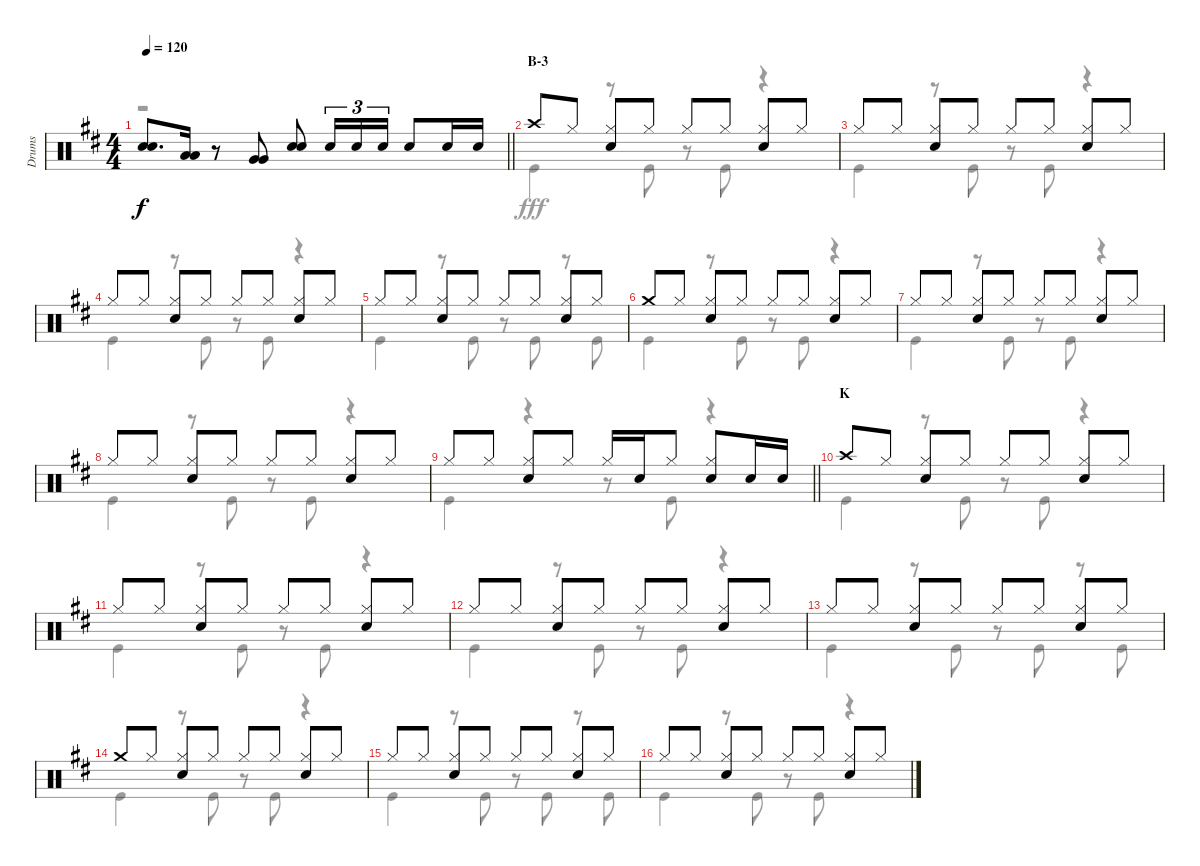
\track ("Drums" "Drums") {instrument percussion}
\staff {score}
\articulation defaults
\voice
\ts (4 4)
\tempo 120
\clef neutral
\barLineRight lightlight
\ks d
("Snare (hit) 2" "Snare (hit) 2").8{d dy f} ("Low Tom (hit)" "Low Tom (hit)").16 r.8 ("Very Low Tom (hit)" "Very Low Tom (hit)").8 ("Snare (hit) 2" "Snare (hit) 2").8 "Snare (hit) 2".16{tu (3 2)} "Snare (hit) 2".16{tu (3 2)} "Snare (hit) 2".16{tu (3 2)} "Snare (hit) 2".8 "Snare (hit) 2".16 "Snare (hit) 2".16 |
\section ("" "B-3")
"Crash high (hit)".8 "Hi-Hat (closed)".8 ("Hi-Hat (closed)" "Snare (hit) 2").8 "Hi-Hat (closed)".8 "Hi-Hat (closed)".8 "Hi-Hat (closed)".8 ("Hi-Hat (closed)" "Snare (hit) 2").8 "Hi-Hat (closed)".8 |
"Hi-Hat (closed)".8 "Hi-Hat (closed)".8 ("Hi-Hat (closed)" "Snare (hit) 2").8 "Hi-Hat (closed)".8 "Hi-Hat (closed)".8 "Hi-Hat (closed)".8 ("Hi-Hat (closed)" "Snare (hit) 2").8 "Hi-Hat (closed)".8 |
"Hi-Hat (closed)".8 "Hi-Hat (closed)".8 ("Hi-Hat (closed)" "Snare (hit) 2").8 "Hi-Hat (closed)".8 "Hi-Hat (closed)".8 "Hi-Hat (closed)".8 ("Hi-Hat (closed)" "Snare (hit) 2").8 "Hi-Hat (closed)".8 |
"Hi-Hat (closed)".8 "Hi-Hat (closed)".8 ("Hi-Hat (closed)" "Snare (hit) 2").8 "Hi-Hat (closed)".8 "Hi-Hat (closed)".8 "Hi-Hat (closed)".8 ("Hi-Hat (closed)" "Snare (hit) 2").8 "Hi-Hat (closed)".8 |
"Crash medium (hit)".8 "Hi-Hat (closed)".8 ("Hi-Hat (closed)" "Snare (hit) 2").8 "Hi-Hat (closed)".8 "Hi-Hat (closed)".8 "Hi-Hat (closed)".8 ("Hi-Hat (closed)" "Snare (hit) 2").8 "Hi-Hat (closed)".8 |
"Hi-Hat (closed)".8 "Hi-Hat (closed)".8 ("Hi-Hat (closed)" "Snare (hit) 2").8 "Hi-Hat (closed)".8 "Hi-Hat (closed)".8 "Hi-Hat (closed)".8 ("Hi-Hat (closed)" "Snare (hit) 2").8 "Hi-Hat (closed)".8 |
"Hi-Hat (closed)".8 "Hi-Hat (closed)".8 ("Hi-Hat (closed)" "Snare (hit) 2").8 "Hi-Hat (closed)".8 "Hi-Hat (closed)".8 "Hi-Hat (closed)".8 ("Hi-Hat (closed)" "Snare (hit) 2").8 "Hi-Hat (closed)".8 |
\barLineRight lightlight "Hi-Hat (closed)".8 "Hi-Hat (closed)".8
("Hi-Hat (closed)" "Snare (hit) 2").8 "Hi-Hat (closed)".8 "Hi-Hat (closed)".16 "Snare (hit) 2".16 "Hi-Hat (closed)".8 ("Hi-Hat (closed)" "Snare (hit) 2").8 "Snare (hit) 2".16 "Snare (hit) 2".16 |
\section ("" "K")
"Crash high (hit)".8 "Hi-Hat (closed)".8 ("Hi-Hat (closed)" "Snare (hit) 2").8 "Hi-Hat (closed)".8 "Hi-Hat (closed)".8 "Hi-Hat (closed)".8 ("Hi-Hat (closed)" "Snare (hit) 2").8 "Hi-Hat (closed)".8 |
"Hi-Hat (closed)".8 "Hi-Hat (closed)".8 ("Hi-Hat (closed)" "Snare (hit) 2").8 "Hi-Hat (closed)".8 "Hi-Hat (closed)".8 "Hi-Hat (closed)".8 ("Hi-Hat (closed)" "Snare (hit) 2").8 "Hi-Hat (closed)".8 |
"Hi-Hat (closed)".8 "Hi-Hat (closed)".8 ("Hi-Hat (closed)" "Snare (hit) 2").8 "Hi-Hat (closed)".8 "Hi-Hat (closed)".8 "Hi-Hat (closed)".8 ("Hi-Hat (closed)" "Snare (hit) 2").8 "Hi-Hat (closed)".8 |
"Hi-Hat (closed)".8 "Hi-Hat (closed)".8 ("Hi-Hat (closed)" "Snare (hit) 2").8 "Hi-Hat (closed)".8 "Hi-Hat (closed)".8 "Hi-Hat (closed)".8 ("Hi-Hat (closed)" "Snare (hit) 2").8 "Hi-Hat (closed)".8 |
"Crash medium (hit)".8 "Hi-Hat (closed)".8 ("Hi-Hat (closed)" "Snare (hit) 2").8 "Hi-Hat (closed)".8 "Hi-Hat (closed)".8 "Hi-Hat (closed)".8 ("Hi-Hat (closed)" "Snare (hit) 2").8 "Hi-Hat (closed)".8 |
"Hi-Hat (closed)".8 "Hi-Hat (closed)".8 ("Hi-Hat (closed)" "Snare (hit) 2").8 "Hi-Hat (closed)".8 "Hi-Hat (closed)".8 "Hi-Hat (closed)".8 ("Hi-Hat (closed)" "Snare (hit) 2").8 "Hi-Hat (closed)".8 |
"Hi-Hat (closed)".8 "Hi-Hat (closed)".8 ("Hi-Hat (closed)" "Snare (hit) 2").8 "Hi-Hat (closed)".8 "Hi-Hat (closed)".8 "Hi-Hat (closed)".8 ("Hi-Hat (closed)" "Snare (hit) 2").8 "Hi-Hat (closed)".8
\voice
\clef neutral
\ottava regular
\simile none
\barLineRight lightlight
\ks d
r.1{dy fff} |
"Kick (hit)".4 r.8 "Kick (hit)".8 r.8 "Kick (hit)".8 r.4 |
"Kick (hit)".4 r.8 "Kick (hit)".8 r.8 "Kick (hit)".8 r.4 |
"Kick (hit)".4 r.8 "Kick (hit)".8 r.8 "Kick (hit)".8 r.4 |
"Kick (hit)".4 r.8 "Kick (hit)".8 r.8 "Kick (hit)".8 r.8 "Kick (hit)".8 |
"Kick (hit)".4 r.8 "Kick (hit)".8 r.8 "Kick (hit)".8 r.4 |
"Kick (hit)".4 r.8 "Kick (hit)".8 r.8 "Kick (hit)".8 r.4 |
"Kick (hit)".4 r.8 "Kick (hit)".8 r.8 "Kick (hit)".8 r.4 |
\barLineRight lightlight "Kick (hit)".4
r.4 r.8 "Kick (hit)".8 r.4 |
"Kick (hit)".4 r.8 "Kick (hit)".8 r.8 "Kick (hit)".8 r.4 |
"Kick (hit)".4 r.8 "Kick (hit)".8 r.8 "Kick (hit)".8 r.4 |
"Kick (hit)".4 r.8 "Kick (hit)".8 r.8 "Kick (hit)".8 r.4 |
"Kick (hit)".4 r.8 "Kick (hit)".8 r.8 "Kick (hit)".8 r.8 "Kick (hit)".8 |
"Kick (hit)".4 r.8 "Kick (hit)".8 r.8 "Kick (hit)".8 r.4 |
"Kick (hit)".4 r.8 "Kick (hit)".8 r.8 "Kick (hit)".8 r.8 "Kick (hit)".8 |
"Kick (hit)".4 r.8 "Kick (hit)".8 r.8 "Kick (hit)".8 r.4
